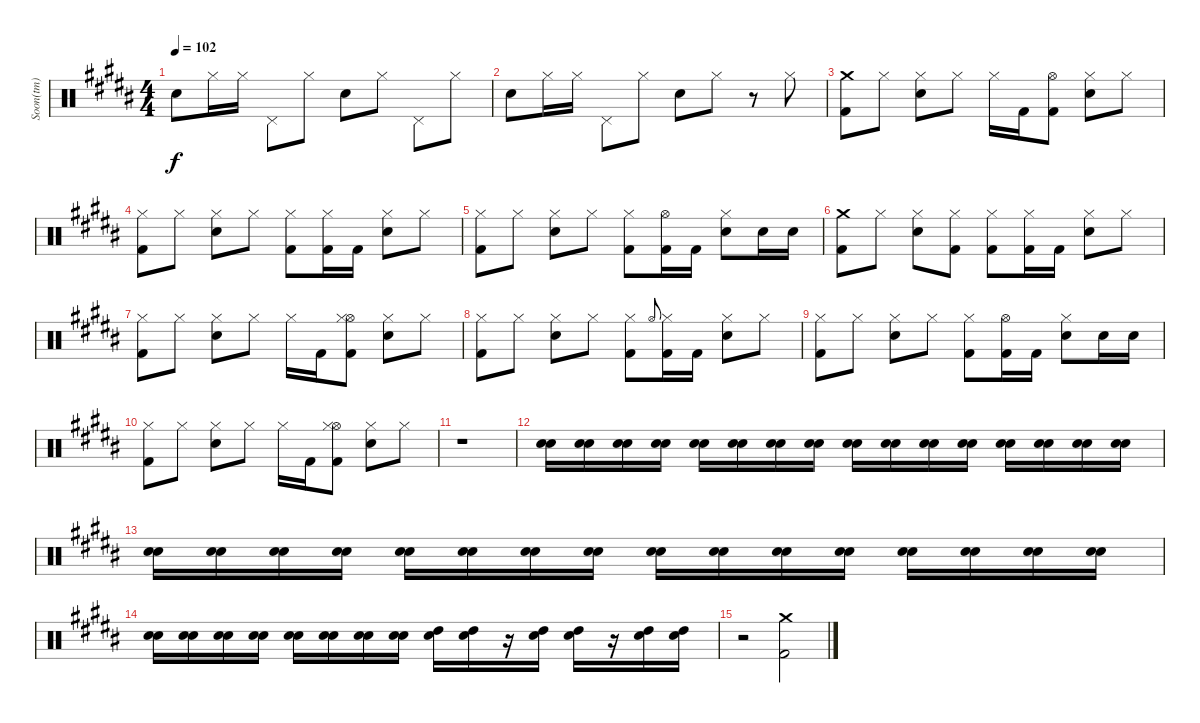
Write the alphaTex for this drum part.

\track ("Soon(tm)" "Soon(tm)") {instrument percussion}
\staff {score}
\articulation defaults
\ts (4 4)
\tempo 102
\clef neutral
\ks g#minor "Snare (hit) 2".8{dy f} "Hi-Hat (closed)".16 "Hi-Hat (closed)".16 "Pedal Hi-Hat (hit)".8 "Hi-Hat (closed)".8 "Snare (hit) 2".8 "Hi-Hat (closed)".8 "Pedal Hi-Hat (hit)".8 "Hi-Hat (closed)".8
|
"Snare (hit) 2".8 "Hi-Hat (closed)".16 "Hi-Hat (closed)".16 "Pedal Hi-Hat (hit)".8 "Hi-Hat (closed)".8 "Snare (hit) 2".8 "Hi-Hat (closed)".8 r.8 "Hi-Hat (closed)".8 |
("Crash medium (hit)" "Kick (hit) 2").8 "Hi-Hat (closed)".8 ("Snare (hit) 2" "Hi-Hat (closed)").8 "Hi-Hat (closed)".8 "Hi-Hat (closed)".16 "Kick (hit) 2".16 ("Hi-Hat (open)" "Kick (hit) 2").8 ("Snare (hit) 2" "Hi-Hat (closed)").8 "Hi-Hat (closed)".8 |
("Hi-Hat (closed)" "Kick (hit) 2").8 "Hi-Hat (closed)".8 ("Snare (hit) 2" "Hi-Hat (closed)").8 "Hi-Hat (closed)".8 ("Hi-Hat (closed)" "Kick (hit) 2").8 ("Hi-Hat (closed)" "Kick (hit) 2").16 "Kick (hit) 2".16 ("Snare (hit) 2" "Hi-Hat (closed)").8 "Hi-Hat (closed)".8 |
("Hi-Hat (closed)" "Kick (hit) 2").8 "Hi-Hat (closed)".8 ("Snare (hit) 2" "Hi-Hat (closed)").8 "Hi-Hat (closed)".8 ("Hi-Hat (closed)" "Kick (hit) 2").8 ("Hi-Hat (open)" "Kick (hit) 2").16 "Kick (hit) 2".16 ("Snare (hit) 2" "Hi-Hat (closed)").8 "Snare (hit) 2".16 "Snare (hit) 2".16 |
("Crash medium (hit)" "Kick (hit) 2").8 "Hi-Hat (closed)".8 ("Snare (hit) 2" "Hi-Hat (closed)").8 ("Hi-Hat (closed)" "Kick (hit) 2").8 ("Hi-Hat (closed)" "Kick (hit) 2").8 ("Hi-Hat (closed)" "Kick (hit) 2").16 "Kick (hit) 2".16 ("Snare (hit) 2" "Hi-Hat (closed)").8 "Hi-Hat (closed)".8 |
("Hi-Hat (closed)" "Kick (hit) 2").8 "Hi-Hat (closed)".8 ("Snare (hit) 2" "Hi-Hat (closed)").8 "Hi-Hat (closed)".8 "Hi-Hat (closed)".16 "Kick (hit) 2".16 ("Hi-Hat (open)" "Hi-Hat (closed)" "Kick (hit) 2").8 ("Snare (hit) 2" "Hi-Hat (closed)").8 "Hi-Hat (closed)".8 |
("Hi-Hat (closed)" "Kick (hit) 2").8 "Hi-Hat (closed)".8 ("Snare (hit) 2" "Hi-Hat (closed)").8 "Hi-Hat (closed)".8 ("Hi-Hat (closed)" "Kick (hit) 2").8 "Hi-Hat (open)".8{gr onbeat} ("Hi-Hat (closed)" "Kick (hit) 2").16 "Kick (hit) 2".16 ("Snare (hit) 2" "Hi-Hat (closed)").8 "Hi-Hat (closed)".8 |
("Hi-Hat (closed)" "Kick (hit) 2").8 "Hi-Hat (closed)".8 ("Snare (hit) 2" "Hi-Hat (closed)").8 "Hi-Hat (closed)".8 ("Hi-Hat (closed)" "Kick (hit) 2").8 ("Hi-Hat (open)" "Kick (hit) 2").16 "Kick (hit) 2".16 ("Snare (hit) 2" "Hi-Hat (closed)").8 "Snare (hit) 2".16 "Snare (hit) 2".16 |
("Hi-Hat (closed)" "Kick (hit) 2").8 "Hi-Hat (closed)".8 ("Snare (hit) 2" "Hi-Hat (closed)").8 "Hi-Hat (closed)".8 "Hi-Hat (closed)".16 "Kick (hit) 2".16 ("Hi-Hat (open)" "Hi-Hat (closed)" "Kick (hit) 2").8 ("Snare (hit) 2" "Hi-Hat (closed)").8 "Hi-Hat (closed)".8 |
r.1{volume 0} |
("Snare (hit) 2" "Snare (hit) 2").16{volume 16} ("Snare (hit) 2" "Snare (hit) 2").16 ("Snare (hit) 2" "Snare (hit) 2").16 ("Snare (hit) 2" "Snare (hit) 2").16 ("Snare (hit) 2" "Snare (hit) 2").16 ("Snare (hit) 2" "Snare (hit) 2").16 ("Snare (hit) 2" "Snare (hit) 2").16 ("Snare (hit) 2" "Snare (hit) 2").16 ("Snare (hit) 2" "Snare (hit) 2").16 ("Snare (hit) 2" "Snare (hit) 2").16 ("Snare (hit) 2" "Snare (hit) 2").16 ("Snare (hit) 2" "Snare (hit) 2").16 ("Snare (hit) 2" "Snare (hit) 2").16 ("Snare (hit) 2" "Snare (hit) 2").16 ("Snare (hit) 2" "Snare (hit) 2").16 ("Snare (hit) 2" "Snare (hit) 2").16 |
("Snare (hit) 2" "Snare (hit) 2").16 ("Snare (hit) 2" "Snare (hit) 2").16 ("Snare (hit) 2" "Snare (hit) 2").16 ("Snare (hit) 2" "Snare (hit) 2").16 ("Snare (hit) 2" "Snare (hit) 2").16 ("Snare (hit) 2" "Snare (hit) 2").16 ("Snare (hit) 2" "Snare (hit) 2").16 ("Snare (hit) 2" "Snare (hit) 2").16 ("Snare (hit) 2" "Snare (hit) 2").16 ("Snare (hit) 2" "Snare (hit) 2").16 ("Snare (hit) 2" "Snare (hit) 2").16 ("Snare (hit) 2" "Snare (hit) 2").16 ("Snare (hit) 2" "Snare (hit) 2").16 ("Snare (hit) 2" "Snare (hit) 2").16 ("Snare (hit) 2" "Snare (hit) 2").16 ("Snare (hit) 2" "Snare (hit) 2").16 |
("Snare (hit) 2" "Snare (hit) 2").16 ("Snare (hit) 2" "Snare (hit) 2").16 ("Snare (hit) 2" "Snare (hit) 2").16 ("Snare (hit) 2" "Snare (hit) 2").16 ("Snare (hit) 2" "Snare (hit) 2").16 ("Snare (hit) 2" "Snare (hit) 2").16 ("Snare (hit) 2" "Snare (hit) 2").16 ("Snare (hit) 2" "Snare (hit) 2").16 ("Snare (hit) 2" "High Tom (hit)").16 ("Snare (hit) 2" "High Tom (hit)").16 r.16 ("Snare (hit) 2" "High Tom (hit)").16 ("Snare (hit) 2" "High Tom (hit)").16 r.16 ("Snare (hit) 2" "High Tom (hit)").16 ("Snare (hit) 2" "High Tom (hit)").16 |
r.2 ("Crash medium (hit)" "Kick (hit) 2").2
